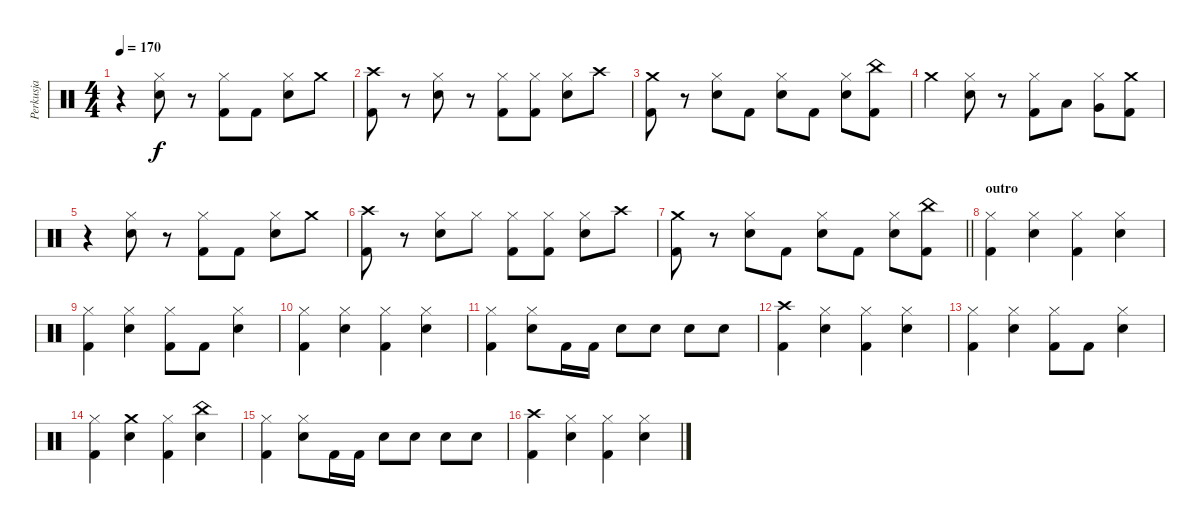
\track ("Perkusja" "Perkusja") {instrument percussion}
\staff {score}
\articulation defaults
\ts (4 4)
\tempo 170
\clef neutral
\ks c
r.4{dy f} ("Hi-Hat (closed)" "Snare (hit) 2").8 r.8 ("Hi-Hat (closed)" "Kick (hit) 2").8 "Kick (hit) 2".8 ("Hi-Hat (closed)" "Snare (hit) 2").8 "Crash medium (hit)".8 |
("Crash high (hit)" "Kick (hit) 2").8 r.8 ("Hi-Hat (closed)" "Snare (hit) 2").8 r.8 ("Hi-Hat (closed)" "Kick (hit) 2").8 ("Hi-Hat (closed)" "Kick (hit) 2").8 ("Hi-Hat (closed)" "Snare (hit) 2").8 "Crash high (hit)".8 |
("Crash medium (hit)" "Kick (hit) 2").8 r.8 ("Hi-Hat (closed)" "Snare (hit) 2").8 "Kick (hit) 2".8 ("Hi-Hat (closed)" "Snare (hit) 2").8 "Kick (hit) 2".8 ("Hi-Hat (closed)" "Snare (hit) 2").8 ("China (hit)" "Kick (hit) 2").8 |
"Crash medium (hit)".4 ("Hi-Hat (closed)" "Snare (hit) 2").8 r.8 ("Hi-Hat (closed)" "Kick (hit) 2").8 "Low Tom (hit)".8 ("Hi-Hat (closed)" "Very Low Tom (hit)").8 ("Crash medium (hit)" "Kick (hit) 2").8 |
r.4 ("Hi-Hat (closed)" "Snare (hit) 2").8 r.8 ("Hi-Hat (closed)" "Kick (hit) 2").8 "Kick (hit) 2".8 ("Hi-Hat (closed)" "Snare (hit) 2").8 "Crash medium (hit)".8 |
("Crash high (hit)" "Kick (hit) 2").8 r.8 ("Hi-Hat (closed)" "Snare (hit) 2").8 "Hi-Hat (closed)".8 ("Hi-Hat (closed)" "Kick (hit) 2").8 ("Hi-Hat (closed)" "Kick (hit) 2").8 ("Hi-Hat (closed)" "Snare (hit) 2").8 "Crash high (hit)".8 |
\barLineRight lightlight
("Crash medium (hit)" "Kick (hit) 2").8 r.8 ("Hi-Hat (closed)" "Snare (hit) 2").8 "Kick (hit) 2".8 ("Hi-Hat (closed)" "Snare (hit) 2").8 "Kick (hit) 2".8 ("Hi-Hat (closed)" "Snare (hit) 2").8 ("China (hit)" "Kick (hit) 2").8 |
\section ("" "outro")
("Hi-Hat (closed)" "Kick (hit) 2").4 ("Hi-Hat (closed)" "Snare (hit) 2").4 ("Hi-Hat (closed)" "Kick (hit) 2").4 ("Hi-Hat (closed)" "Snare (hit) 2").4 |
("Hi-Hat (closed)" "Kick (hit) 2").4 ("Hi-Hat (closed)" "Snare (hit) 2").4 ("Hi-Hat (closed)" "Kick (hit) 2").8 "Kick (hit) 2".8 ("Hi-Hat (closed)" "Snare (hit) 2").4 |
("Hi-Hat (closed)" "Kick (hit) 2").4 ("Hi-Hat (closed)" "Snare (hit) 2").4 ("Hi-Hat (closed)" "Kick (hit) 2").4 ("Hi-Hat (closed)" "Snare (hit) 2").4 |
("Hi-Hat (closed)" "Kick (hit) 2").4 ("Hi-Hat (closed)" "Snare (hit) 2").8 "Kick (hit) 2".16 "Kick (hit) 2".16 "Snare (hit) 2".8 "Snare (hit) 2".8 "Snare (hit) 2".8 "Snare (hit) 2".8 |
("Crash high (hit)" "Kick (hit) 2").4 ("Hi-Hat (closed)" "Snare (hit) 2").4 ("Hi-Hat (closed)" "Kick (hit) 2").4 ("Hi-Hat (closed)" "Snare (hit) 2").4 |
("Hi-Hat (closed)" "Kick (hit) 2").4 ("Hi-Hat (closed)" "Snare (hit) 2").4 ("Hi-Hat (closed)" "Kick (hit) 2").8 "Kick (hit) 2".8 ("Hi-Hat (closed)" "Snare (hit) 2").4 |
("Hi-Hat (closed)" "Kick (hit) 2").4 ("Crash medium (hit)" "Snare (hit) 2").4 ("Hi-Hat (closed)" "Kick (hit) 2").4 ("China (hit)" "Snare (hit) 2").4 |
("Hi-Hat (closed)" "Kick (hit) 2").4 ("Hi-Hat (closed)" "Snare (hit) 2").8 "Kick (hit) 2".16 "Kick (hit) 2".16 "Snare (hit) 2".8 "Snare (hit) 2".8 "Snare (hit) 2".8 "Snare (hit) 2".8 |
("Crash high (hit)" "Kick (hit) 2").4 ("Hi-Hat (closed)" "Snare (hit) 2").4 ("Hi-Hat (closed)" "Kick (hit) 2").4 ("Hi-Hat (closed)" "Snare (hit) 2").4
